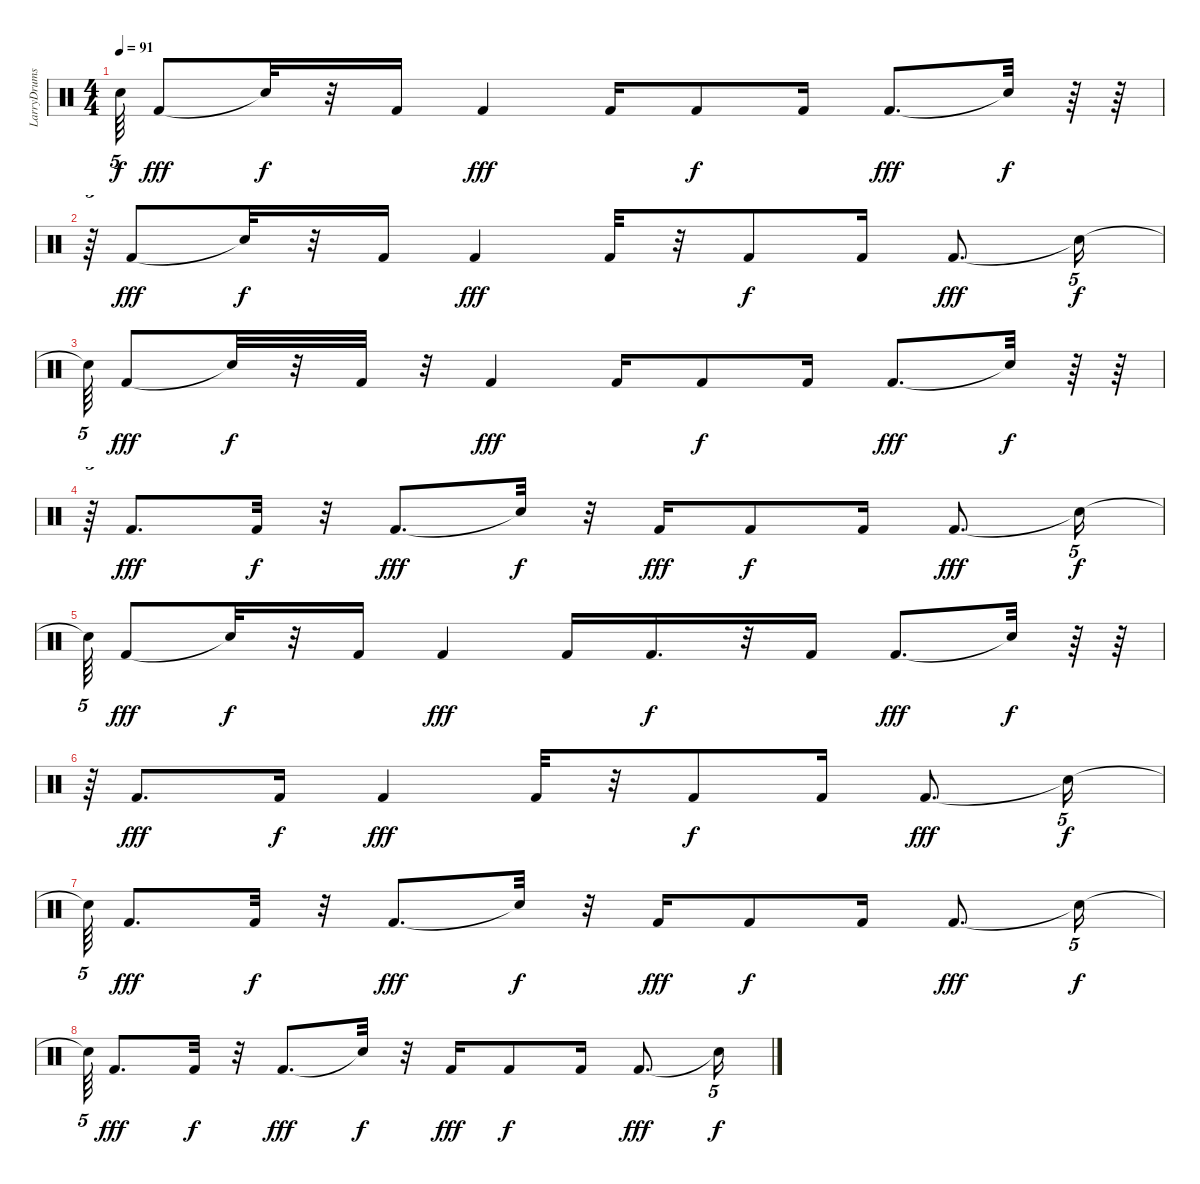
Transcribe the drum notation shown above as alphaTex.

\track ("LarryDrums" "LarryDrums") {instrument percussion}
\staff {score}
\articulation defaults
\ts (4 4)
\tempo 91
\clef neutral
\ks c "Snare (hit)"{t}.64{tu (5 4) dy f} "Kick (hit) 2".8{dy fff} "Snare (hit)"{t}.32{dy f}
r.32 "Kick (hit) 2".16 "Kick (hit) 2".4{dy fff} "Kick (hit) 2".16 "Kick (hit) 2".8{dy f} "Kick (hit) 2".16 "Kick (hit) 2".8{d dy fff} "Snare (hit)"{t}.32{dy f} r.64 r.64 |
r.64{tu (5 4)} "Kick (hit) 2".8{dy fff} "Snare (hit)"{t}.32{dy f} r.32 "Kick (hit) 2".16 "Kick (hit) 2".4{dy fff} "Kick (hit) 2".32 r.32 "Kick (hit) 2".8{dy f} "Kick (hit) 2".16 "Kick (hit) 2".8{d dy fff} "Snare (hit)"{t}.16{tu (5 4) dy f} |
"Snare (hit)"{t}.64{tu (5 4)} "Kick (hit) 2".8{dy fff} "Snare (hit)"{t}.32{dy f} r.32 "Kick (hit) 2".32 r.32 "Kick (hit) 2".4{dy fff} "Kick (hit) 2".16 "Kick (hit) 2".8{dy f} "Kick (hit) 2".16 "Kick (hit) 2".8{d dy fff} "Snare (hit)"{t}.32{dy f} r.64 r.64 |
r.64{tu (5 4)} "Kick (hit) 2".8{d dy fff} "Kick (hit) 2".32{dy f} r.32 "Kick (hit) 2".8{d dy fff} "Snare (hit)"{t}.32{dy f} r.32 "Kick (hit) 2".16{dy fff} "Kick (hit) 2".8{dy f} "Kick (hit) 2".16 "Kick (hit) 2".8{d dy fff} "Snare (hit)"{t}.16{tu (5 4) dy f} |
"Snare (hit)"{t}.64{tu (5 4)} "Kick (hit) 2".8{dy fff} "Snare (hit)"{t}.32{dy f} r.32 "Kick (hit) 2".16 "Kick (hit) 2".4{dy fff} "Kick (hit) 2".16 "Kick (hit) 2".16{d dy f} r.32 "Kick (hit) 2".16 "Kick (hit) 2".8{d dy fff} "Snare (hit)"{t}.32{dy f} r.64 r.64 |
r.64{tu (5 4)} "Kick (hit) 2".8{d dy fff} "Kick (hit) 2".16{dy f} "Kick (hit) 2".4{dy fff} "Kick (hit) 2".32 r.32 "Kick (hit) 2".8{dy f} "Kick (hit) 2".16 "Kick (hit) 2".8{d dy fff} "Snare (hit)"{t}.16{tu (5 4) dy f} |
"Snare (hit)"{t}.64{tu (5 4)} "Kick (hit) 2".8{d dy fff} "Kick (hit) 2".32{dy f} r.32 "Kick (hit) 2".8{d dy fff} "Snare (hit)"{t}.32{dy f} r.32 "Kick (hit) 2".16{dy fff} "Kick (hit) 2".8{dy f} "Kick (hit) 2".16 "Kick (hit) 2".8{d dy fff} "Snare (hit)"{t}.16{tu (5 4) dy f} |
"Snare (hit)"{t}.64{tu (5 4)} "Kick (hit) 2".8{d dy fff} "Kick (hit) 2".32{dy f} r.32 "Kick (hit) 2".8{d dy fff} "Snare (hit)"{t}.32{dy f} r.32 "Kick (hit) 2".16{dy fff} "Kick (hit) 2".8{dy f} "Kick (hit) 2".16 "Kick (hit) 2".8{d dy fff} "Snare (hit)"{t}.16{tu (5 4) dy f}
